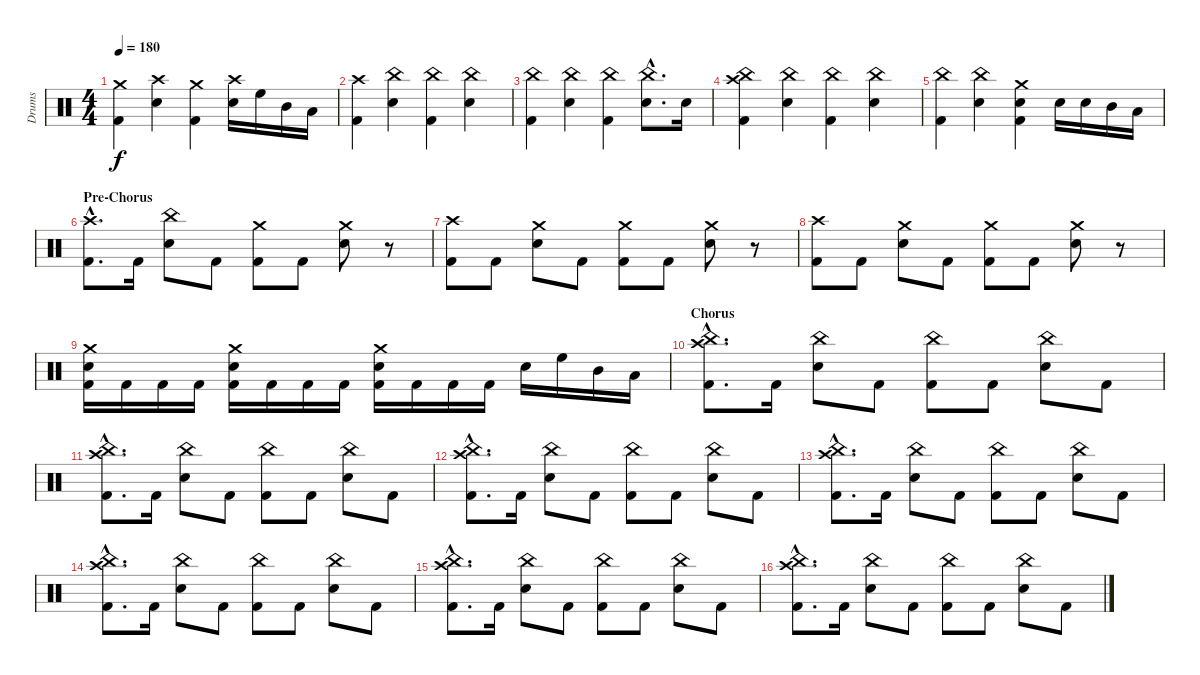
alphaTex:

\track ("Drums" "Drums") {instrument percussion}
\staff {score}
\articulation defaults
\ts (4 4)
\tempo 180
\clef neutral
\ks c
("Crash medium (hit)" "Kick (hit) 2").4{dy f} ("Crash high (hit)" "Electric Snare (hit)").4 ("Crash medium (hit)" "Kick (hit) 2").4 ("Crash high (hit)" "Electric Snare (hit)").16 "High Floor Tom (hit)".16 "Mid Tom (hit)".16 "Low Tom (hit)".16 |
("Crash high (hit)" "Kick (hit) 2").4 ("China (hit)" "Electric Snare (hit)").4 ("China (hit)" "Kick (hit) 2").4 ("China (hit)" "Electric Snare (hit)").4 |
("China (hit)" "Kick (hit) 2").4 ("China (hit)" "Electric Snare (hit)").4 ("China (hit)" "Kick (hit) 2").4 ("China (hit)"{hac} "Electric Snare (hit)"{hac}).8{d} "Electric Snare (hit)".16 |
("China (hit)" "Crash high (hit)" "Kick (hit) 2").4 ("China (hit)" "Electric Snare (hit)").4 ("China (hit)" "Kick (hit) 2").4 ("China (hit)" "Electric Snare (hit)").4 |
("China (hit)" "Kick (hit) 2").4 ("China (hit)" "Electric Snare (hit)").4 ("Crash medium (hit)" "Electric Snare (hit)" "Kick (hit) 2").4 "Electric Snare (hit)".16 "Electric Snare (hit)".16 "Mid Tom (hit)".16 "Low Tom (hit)".16 |
\section ("" "Pre-Chorus")
("Crash high (hit)"{hac} "Kick (hit) 2"{hac}).8{d} "Kick (hit) 2".16 ("China (hit)" "Electric Snare (hit)").8 "Kick (hit) 2".8 ("Crash medium (hit)" "Kick (hit) 2").8 "Kick (hit) 2".8 ("Crash medium (hit)" "Electric Snare (hit)").8 r.8 |
("Crash high (hit)" "Kick (hit) 2").8 "Kick (hit) 2".8 ("Crash medium (hit)" "Electric Snare (hit)").8 "Kick (hit) 2".8 ("Crash medium (hit)" "Kick (hit) 2").8 "Kick (hit) 2".8 ("Crash medium (hit)" "Electric Snare (hit)").8 r.8 |
("Crash high (hit)" "Kick (hit) 2").8 "Kick (hit) 2".8 ("Crash medium (hit)" "Electric Snare (hit)").8 "Kick (hit) 2".8 ("Crash medium (hit)" "Kick (hit) 2").8 "Kick (hit) 2".8 ("Crash medium (hit)" "Electric Snare (hit)").8 r.8 |
("Crash medium (hit)" "Electric Snare (hit)" "Kick (hit) 2").16 "Kick (hit) 2".16 "Kick (hit) 2".16 "Kick (hit) 2".16 ("Crash medium (hit)" "Electric Snare (hit)" "Kick (hit) 2").16 "Kick (hit) 2".16 "Kick (hit) 2".16 "Kick (hit) 2".16 ("Crash medium (hit)" "Electric Snare (hit)" "Kick (hit) 2").16 "Kick (hit) 2".16 "Kick (hit) 2".16 "Kick (hit) 2".16 "Electric Snare (hit)".16 "High Floor Tom (hit)".16 "Mid Tom (hit)".16 "Low Tom (hit)".16 |
\section ("" "Chorus")
("China (hit)"{hac} "Crash high (hit)"{hac} "Kick (hit) 2"{hac}).8{d} "Kick (hit) 2".16 ("China (hit)" "Electric Snare (hit)").8 "Kick (hit) 2".8 ("China (hit)" "Kick (hit) 2").8 "Kick (hit) 2".8 ("China (hit)" "Electric Snare (hit)").8 "Kick (hit) 2".8 |
("China (hit)"{hac} "Crash high (hit)"{hac} "Kick (hit) 2"{hac}).8{d} "Kick (hit) 2".16 ("China (hit)" "Electric Snare (hit)").8 "Kick (hit) 2".8 ("China (hit)" "Kick (hit) 2").8 "Kick (hit) 2".8 ("China (hit)" "Electric Snare (hit)").8 "Kick (hit) 2".8 |
("China (hit)"{hac} "Crash high (hit)"{hac} "Kick (hit) 2"{hac}).8{d} "Kick (hit) 2".16 ("China (hit)" "Electric Snare (hit)").8 "Kick (hit) 2".8 ("China (hit)" "Kick (hit) 2").8 "Kick (hit) 2".8 ("China (hit)" "Electric Snare (hit)").8 "Kick (hit) 2".8 |
("China (hit)"{hac} "Crash high (hit)"{hac} "Kick (hit) 2"{hac}).8{d} "Kick (hit) 2".16 ("China (hit)" "Electric Snare (hit)").8 "Kick (hit) 2".8 ("China (hit)" "Kick (hit) 2").8 "Kick (hit) 2".8 ("China (hit)" "Electric Snare (hit)").8 "Kick (hit) 2".8 |
("China (hit)"{hac} "Crash high (hit)"{hac} "Kick (hit) 2"{hac}).8{d} "Kick (hit) 2".16 ("China (hit)" "Electric Snare (hit)").8 "Kick (hit) 2".8 ("China (hit)" "Kick (hit) 2").8 "Kick (hit) 2".8 ("China (hit)" "Electric Snare (hit)").8 "Kick (hit) 2".8 |
("China (hit)"{hac} "Crash high (hit)"{hac} "Kick (hit) 2"{hac}).8{d} "Kick (hit) 2".16 ("China (hit)" "Electric Snare (hit)").8 "Kick (hit) 2".8 ("China (hit)" "Kick (hit) 2").8 "Kick (hit) 2".8 ("China (hit)" "Electric Snare (hit)").8 "Kick (hit) 2".8 |
("China (hit)"{hac} "Crash high (hit)"{hac} "Kick (hit) 2"{hac}).8{d} "Kick (hit) 2".16 ("China (hit)" "Electric Snare (hit)").8 "Kick (hit) 2".8 ("China (hit)" "Kick (hit) 2").8 "Kick (hit) 2".8 ("China (hit)" "Electric Snare (hit)").8 "Kick (hit) 2".8
